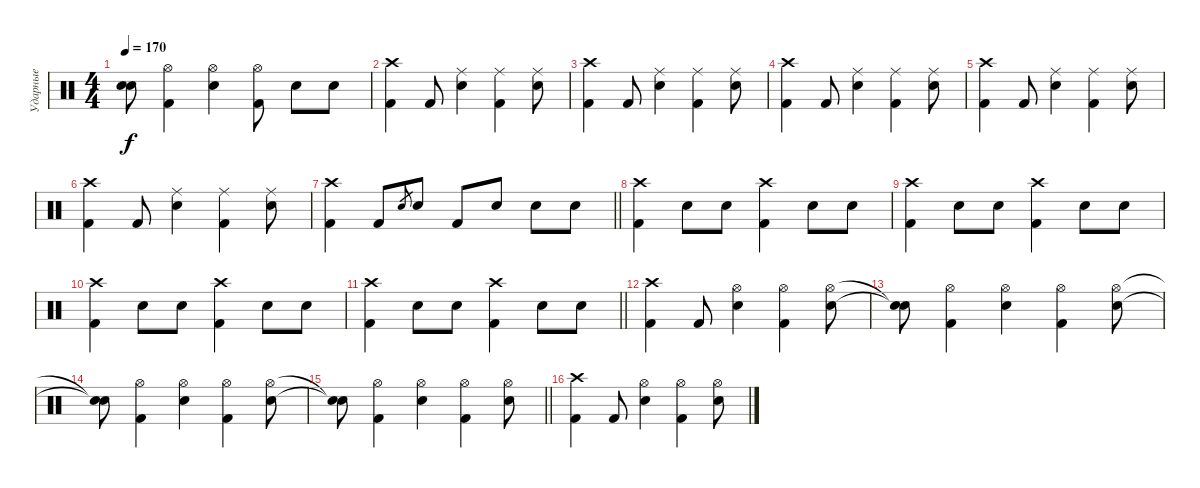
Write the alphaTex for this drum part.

\track ("Ударные" "Ударные") {instrument percussion}
\staff {score}
\articulation defaults
\ts (4 4)
\tempo 170
\clef neutral
\ks c
("Snare (hit)"{t} "Snare (hit)"{t}).8{dy f} ("Hi-Hat (open)" "Kick (hit) 2").4 ("Hi-Hat (open)" "Snare (hit) 2").4 ("Kick (hit) 2" "Hi-Hat (open)").8 "Snare (hit) 2".8 "Snare (hit) 2".8 |
("Crash high (hit)" "Kick (hit) 2").4 "Kick (hit) 2".8 ("Ride (middle)" "Snare (hit) 2").4 ("Ride (middle)" "Kick (hit) 2").4 ("Ride (middle)" "Snare (hit) 2").8 |
("Crash high (hit)" "Kick (hit) 2").4 "Kick (hit) 2".8 ("Ride (middle)" "Snare (hit) 2").4 ("Ride (middle)" "Kick (hit) 2").4 ("Ride (middle)" "Snare (hit) 2").8 |
("Crash high (hit)" "Kick (hit) 2").4 "Kick (hit) 2".8 ("Ride (middle)" "Snare (hit) 2").4 ("Ride (middle)" "Kick (hit) 2").4 ("Ride (middle)" "Snare (hit) 2").8 |
("Crash high (hit)" "Kick (hit) 2").4 "Kick (hit) 2".8 ("Ride (middle)" "Snare (hit) 2").4 ("Ride (middle)" "Kick (hit) 2").4 ("Ride (middle)" "Snare (hit) 2").8 |
("Crash high (hit)" "Kick (hit) 2").4 "Kick (hit) 2".8 ("Ride (middle)" "Snare (hit) 2").4 ("Ride (middle)" "Kick (hit) 2").4 ("Ride (middle)" "Snare (hit) 2").8 |
\barLineRight lightlight
("Crash high (hit)" "Kick (hit) 2").4 "Kick (hit) 2".8 "Snare (hit) 2".8{gr} "Snare (hit) 2".8 "Kick (hit) 2".8 "Snare (hit) 2".8 "Snare (hit) 2".8 "Snare (hit) 2".8 |
("Crash high (hit)" "Kick (hit) 2").4 "Snare (hit) 2".8 "Snare (hit) 2".8 ("Crash high (hit)" "Kick (hit) 2").4 "Snare (hit) 2".8 "Snare (hit) 2".8 |
("Crash high (hit)" "Kick (hit) 2").4 "Snare (hit) 2".8 "Snare (hit) 2".8 ("Crash high (hit)" "Kick (hit) 2").4 "Snare (hit) 2".8 "Snare (hit) 2".8 |
("Crash high (hit)" "Kick (hit) 2").4 "Snare (hit) 2".8 "Snare (hit) 2".8 ("Crash high (hit)" "Kick (hit) 2").4 "Snare (hit) 2".8 "Snare (hit) 2".8 |
\barLineRight lightlight
("Crash high (hit)" "Kick (hit) 2").4 "Snare (hit) 2".8 "Snare (hit) 2".8 ("Crash high (hit)" "Kick (hit) 2").4 "Snare (hit) 2".8 "Snare (hit) 2".8 |
("Crash high (hit)" "Kick (hit) 2").4 "Kick (hit) 2".8 ("Hi-Hat (open)" "Snare (hit) 2").4 ("Hi-Hat (open)" "Kick (hit) 2").4 ("Hi-Hat (open)" "Snare (hit) 2").8 |
("Snare (hit)"{t} "Snare (hit)"{t}).8 ("Hi-Hat (open)" "Kick (hit) 2").4 ("Hi-Hat (open)" "Snare (hit) 2").4 ("Hi-Hat (open)" "Kick (hit) 2").4 ("Hi-Hat (open)" "Snare (hit) 2").8 |
("Snare (hit)"{t} "Snare (hit)"{t}).8 ("Hi-Hat (open)" "Kick (hit) 2").4 ("Hi-Hat (open)" "Snare (hit) 2").4 ("Hi-Hat (open)" "Kick (hit) 2").4 ("Hi-Hat (open)" "Snare (hit) 2").8 |
\barLineRight lightlight
("Snare (hit)"{t} "Snare (hit)"{t}).8 ("Hi-Hat (open)" "Kick (hit) 2").4 ("Hi-Hat (open)" "Snare (hit) 2").4 ("Hi-Hat (open)" "Kick (hit) 2").4 ("Hi-Hat (open)" "Snare (hit) 2").8 |
("Crash high (hit)" "Kick (hit) 2").4 "Kick (hit) 2".8 ("Hi-Hat (open)" "Snare (hit) 2").4 ("Hi-Hat (open)" "Kick (hit) 2").4 ("Hi-Hat (open)" "Snare (hit) 2").8
